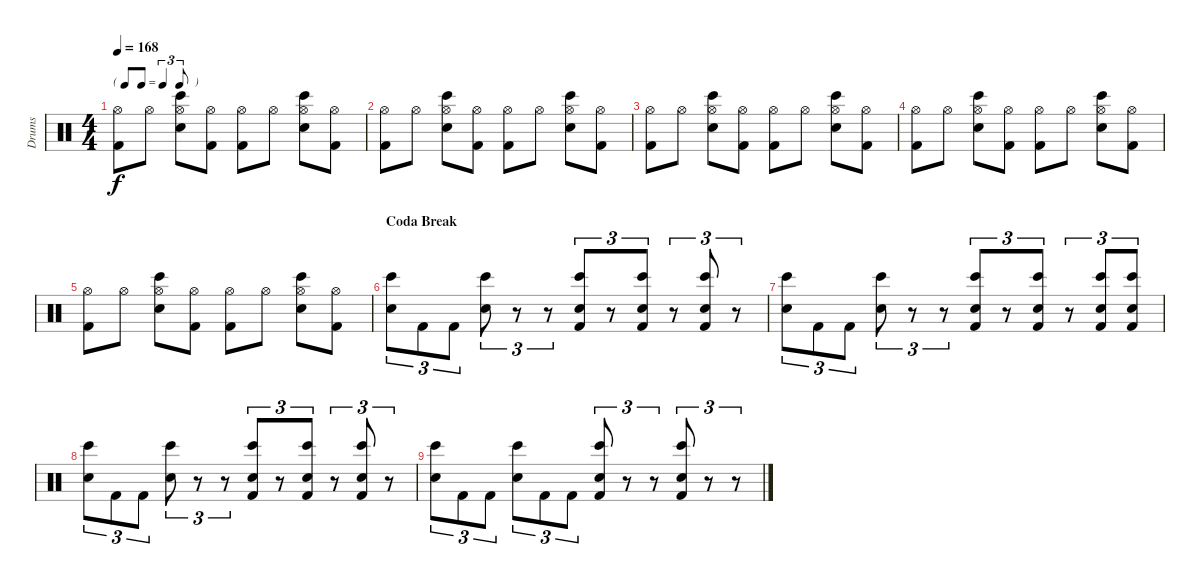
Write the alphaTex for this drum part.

\track ("Drums" "Drums") {instrument percussion}
\staff {score}
\articulation defaults
\ts (4 4)
\tf triplet8th
\tempo 168
\clef neutral
\ks c
("Hi-Hat (open)" "Kick (hit) 2").8{dy f} "Hi-Hat (open)".8 ("Hi-Hat (open)" "Bongo High (hit)" "Snare (hit) 2").8 ("Hi-Hat (open)" "Kick (hit) 2").8 ("Hi-Hat (open)" "Kick (hit) 2").8 "Hi-Hat (open)".8 ("Hi-Hat (open)" "Bongo High (hit)" "Snare (hit) 2").8 ("Hi-Hat (open)" "Kick (hit) 2").8 |
("Hi-Hat (open)" "Kick (hit) 2").8 "Hi-Hat (open)".8 ("Hi-Hat (open)" "Bongo High (hit)" "Snare (hit) 2").8 ("Hi-Hat (open)" "Kick (hit) 2").8 ("Hi-Hat (open)" "Kick (hit) 2").8 "Hi-Hat (open)".8 ("Hi-Hat (open)" "Bongo High (hit)" "Snare (hit) 2").8 ("Hi-Hat (open)" "Kick (hit) 2").8 |
("Hi-Hat (open)" "Kick (hit) 2").8 "Hi-Hat (open)".8 ("Hi-Hat (open)" "Bongo High (hit)" "Snare (hit) 2").8 ("Hi-Hat (open)" "Kick (hit) 2").8 ("Hi-Hat (open)" "Kick (hit) 2").8 "Hi-Hat (open)".8 ("Hi-Hat (open)" "Bongo High (hit)" "Snare (hit) 2").8 ("Hi-Hat (open)" "Kick (hit) 2").8 |
("Hi-Hat (open)" "Kick (hit) 2").8 "Hi-Hat (open)".8 ("Hi-Hat (open)" "Bongo High (hit)" "Snare (hit) 2").8 ("Hi-Hat (open)" "Kick (hit) 2").8 ("Hi-Hat (open)" "Kick (hit) 2").8 "Hi-Hat (open)".8 ("Hi-Hat (open)" "Bongo High (hit)" "Snare (hit) 2").8 ("Hi-Hat (open)" "Kick (hit) 2").8 |
("Hi-Hat (open)" "Kick (hit) 2").8 "Hi-Hat (open)".8 ("Hi-Hat (open)" "Bongo High (hit)" "Snare (hit) 2").8 ("Hi-Hat (open)" "Kick (hit) 2").8 ("Hi-Hat (open)" "Kick (hit) 2").8 "Hi-Hat (open)".8 ("Hi-Hat (open)" "Bongo High (hit)" "Snare (hit) 2").8 ("Hi-Hat (open)" "Kick (hit) 2").8 |
\section ("" "Coda Break")
("Bongo High (hit)" "Snare (hit) 2").8{tu (3 2)} "Kick (hit) 2".8{tu (3 2)} "Kick (hit) 2".8{tu (3 2)} ("Bongo High (hit)" "Snare (hit) 2").8{tu (3 2)} r.8{tu (3 2)} r.8{tu (3 2)} ("Bongo High (hit)" "Snare (hit) 2" "Kick (hit) 2").8{tu (3 2)} r.8{tu (3 2)} ("Bongo High (hit)" "Snare (hit) 2" "Kick (hit) 2").8{tu (3 2)} r.8{tu (3 2)} ("Bongo High (hit)" "Snare (hit) 2" "Kick (hit) 2").8{tu (3 2)} r.8{tu (3 2)} |
("Bongo High (hit)" "Snare (hit) 2").8{tu (3 2)} "Kick (hit) 2".8{tu (3 2)} "Kick (hit) 2".8{tu (3 2)} ("Bongo High (hit)" "Snare (hit) 2").8{tu (3 2)} r.8{tu (3 2)} r.8{tu (3 2)} ("Bongo High (hit)" "Snare (hit) 2" "Kick (hit) 2").8{tu (3 2)} r.8{tu (3 2)} ("Bongo High (hit)" "Snare (hit) 2" "Kick (hit) 2").8{tu (3 2)} r.8{tu (3 2)} ("Bongo High (hit)" "Snare (hit) 2" "Kick (hit) 2").8{tu (3 2)} ("Bongo High (hit)" "Snare (hit) 2" "Kick (hit) 2").8{tu (3 2)} |
("Bongo High (hit)" "Snare (hit) 2").8{tu (3 2)} "Kick (hit) 2".8{tu (3 2)} "Kick (hit) 2".8{tu (3 2)} ("Bongo High (hit)" "Snare (hit) 2").8{tu (3 2)} r.8{tu (3 2)} r.8{tu (3 2)} ("Bongo High (hit)" "Snare (hit) 2" "Kick (hit) 2").8{tu (3 2)} r.8{tu (3 2)} ("Bongo High (hit)" "Snare (hit) 2" "Kick (hit) 2").8{tu (3 2)} r.8{tu (3 2)} ("Bongo High (hit)" "Snare (hit) 2" "Kick (hit) 2").8{tu (3 2)} r.8{tu (3 2)} |
("Bongo High (hit)" "Snare (hit) 2").8{tu (3 2)} "Kick (hit) 2".8{tu (3 2)} "Kick (hit) 2".8{tu (3 2)} ("Bongo High (hit)" "Snare (hit) 2").8{tu (3 2)} "Kick (hit) 2".8{tu (3 2)} "Kick (hit) 2".8{tu (3 2)} ("Bongo High (hit)" "Snare (hit) 2" "Kick (hit) 2").8{tu (3 2)} r.8{tu (3 2)} r.8{tu (3 2)} ("Bongo High (hit)" "Snare (hit) 2" "Kick (hit) 2").8{tu (3 2)} r.8{tu (3 2)} r.8{tu (3 2)}
